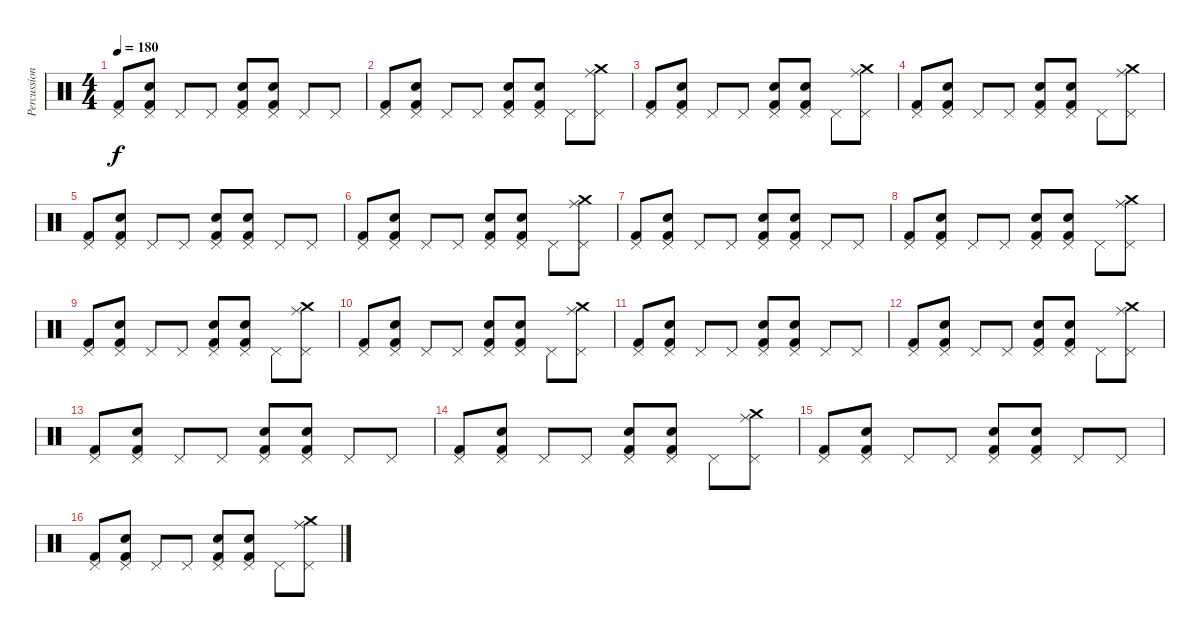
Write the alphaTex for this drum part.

\track ("Percussion" "Percussion") {instrument percussion}
\staff {score}
\articulation defaults
\ts (4 4)
\tempo 180
\clef neutral
\ks c
("Pedal Hi-Hat (hit)" "Kick (hit) 2").8{dy f} ("Pedal Hi-Hat (hit)" "Snare (hit) 2" "Kick (hit) 2").8 "Pedal Hi-Hat (hit)".8 "Pedal Hi-Hat (hit)".8 ("Pedal Hi-Hat (hit)" "Snare (hit) 2" "Kick (hit) 2").8 ("Pedal Hi-Hat (hit)" "Snare (hit) 2" "Kick (hit) 2").8 "Pedal Hi-Hat (hit)".8 "Pedal Hi-Hat (hit)".8 |
("Pedal Hi-Hat (hit)" "Kick (hit) 2").8 ("Pedal Hi-Hat (hit)" "Snare (hit) 2" "Kick (hit) 2").8 "Pedal Hi-Hat (hit)".8 "Pedal Hi-Hat (hit)".8 ("Pedal Hi-Hat (hit)" "Snare (hit) 2" "Kick (hit) 2").8 ("Pedal Hi-Hat (hit)" "Snare (hit) 2" "Kick (hit) 2").8 "Pedal Hi-Hat (hit)".8 ("Pedal Hi-Hat (hit)" "Ride (middle)" "Crash medium (hit)").8 |
("Pedal Hi-Hat (hit)" "Kick (hit) 2").8 ("Pedal Hi-Hat (hit)" "Snare (hit) 2" "Kick (hit) 2").8 "Pedal Hi-Hat (hit)".8 "Pedal Hi-Hat (hit)".8 ("Pedal Hi-Hat (hit)" "Snare (hit) 2" "Kick (hit) 2").8 ("Pedal Hi-Hat (hit)" "Snare (hit) 2" "Kick (hit) 2").8 "Pedal Hi-Hat (hit)".8 ("Pedal Hi-Hat (hit)" "Ride (middle)" "Crash medium (hit)").8 |
("Pedal Hi-Hat (hit)" "Kick (hit) 2").8 ("Pedal Hi-Hat (hit)" "Snare (hit) 2" "Kick (hit) 2").8 "Pedal Hi-Hat (hit)".8 "Pedal Hi-Hat (hit)".8 ("Pedal Hi-Hat (hit)" "Snare (hit) 2" "Kick (hit) 2").8 ("Pedal Hi-Hat (hit)" "Snare (hit) 2" "Kick (hit) 2").8 "Pedal Hi-Hat (hit)".8 ("Pedal Hi-Hat (hit)" "Ride (middle)" "Crash medium (hit)").8 |
("Pedal Hi-Hat (hit)" "Kick (hit) 2").8 ("Pedal Hi-Hat (hit)" "Snare (hit) 2" "Kick (hit) 2").8 "Pedal Hi-Hat (hit)".8 "Pedal Hi-Hat (hit)".8 ("Pedal Hi-Hat (hit)" "Snare (hit) 2" "Kick (hit) 2").8 ("Pedal Hi-Hat (hit)" "Snare (hit) 2" "Kick (hit) 2").8 "Pedal Hi-Hat (hit)".8 "Pedal Hi-Hat (hit)".8 |
("Pedal Hi-Hat (hit)" "Kick (hit) 2").8 ("Pedal Hi-Hat (hit)" "Snare (hit) 2" "Kick (hit) 2").8 "Pedal Hi-Hat (hit)".8 "Pedal Hi-Hat (hit)".8 ("Pedal Hi-Hat (hit)" "Snare (hit) 2" "Kick (hit) 2").8 ("Pedal Hi-Hat (hit)" "Snare (hit) 2" "Kick (hit) 2").8 "Pedal Hi-Hat (hit)".8 ("Pedal Hi-Hat (hit)" "Ride (middle)" "Crash medium (hit)").8 |
("Pedal Hi-Hat (hit)" "Kick (hit) 2").8 ("Pedal Hi-Hat (hit)" "Snare (hit) 2" "Kick (hit) 2").8 "Pedal Hi-Hat (hit)".8 "Pedal Hi-Hat (hit)".8 ("Pedal Hi-Hat (hit)" "Snare (hit) 2" "Kick (hit) 2").8 ("Pedal Hi-Hat (hit)" "Snare (hit) 2" "Kick (hit) 2").8 "Pedal Hi-Hat (hit)".8 "Pedal Hi-Hat (hit)".8 |
("Pedal Hi-Hat (hit)" "Kick (hit) 2").8 ("Pedal Hi-Hat (hit)" "Snare (hit) 2" "Kick (hit) 2").8 "Pedal Hi-Hat (hit)".8 "Pedal Hi-Hat (hit)".8 ("Pedal Hi-Hat (hit)" "Snare (hit) 2" "Kick (hit) 2").8 ("Pedal Hi-Hat (hit)" "Snare (hit) 2" "Kick (hit) 2").8 "Pedal Hi-Hat (hit)".8 ("Pedal Hi-Hat (hit)" "Ride (middle)" "Crash medium (hit)").8 |
("Pedal Hi-Hat (hit)" "Kick (hit) 2").8 ("Pedal Hi-Hat (hit)" "Snare (hit) 2" "Kick (hit) 2").8 "Pedal Hi-Hat (hit)".8 "Pedal Hi-Hat (hit)".8 ("Pedal Hi-Hat (hit)" "Snare (hit) 2" "Kick (hit) 2").8 ("Pedal Hi-Hat (hit)" "Snare (hit) 2" "Kick (hit) 2").8 "Pedal Hi-Hat (hit)".8 ("Pedal Hi-Hat (hit)" "Ride (middle)" "Crash medium (hit)").8 |
("Pedal Hi-Hat (hit)" "Kick (hit) 2").8 ("Pedal Hi-Hat (hit)" "Snare (hit) 2" "Kick (hit) 2").8 "Pedal Hi-Hat (hit)".8 "Pedal Hi-Hat (hit)".8 ("Pedal Hi-Hat (hit)" "Snare (hit) 2" "Kick (hit) 2").8 ("Pedal Hi-Hat (hit)" "Snare (hit) 2" "Kick (hit) 2").8 "Pedal Hi-Hat (hit)".8 ("Pedal Hi-Hat (hit)" "Ride (middle)" "Crash medium (hit)").8 |
("Pedal Hi-Hat (hit)" "Kick (hit) 2").8 ("Pedal Hi-Hat (hit)" "Snare (hit) 2" "Kick (hit) 2").8 "Pedal Hi-Hat (hit)".8 "Pedal Hi-Hat (hit)".8 ("Pedal Hi-Hat (hit)" "Snare (hit) 2" "Kick (hit) 2").8 ("Pedal Hi-Hat (hit)" "Snare (hit) 2" "Kick (hit) 2").8 "Pedal Hi-Hat (hit)".8 "Pedal Hi-Hat (hit)".8 |
("Pedal Hi-Hat (hit)" "Kick (hit) 2").8 ("Pedal Hi-Hat (hit)" "Snare (hit) 2" "Kick (hit) 2").8 "Pedal Hi-Hat (hit)".8 "Pedal Hi-Hat (hit)".8 ("Pedal Hi-Hat (hit)" "Snare (hit) 2" "Kick (hit) 2").8 ("Pedal Hi-Hat (hit)" "Snare (hit) 2" "Kick (hit) 2").8 "Pedal Hi-Hat (hit)".8 ("Pedal Hi-Hat (hit)" "Ride (middle)" "Crash medium (hit)").8 |
("Pedal Hi-Hat (hit)" "Kick (hit) 2").8 ("Pedal Hi-Hat (hit)" "Snare (hit) 2" "Kick (hit) 2").8 "Pedal Hi-Hat (hit)".8 "Pedal Hi-Hat (hit)".8 ("Pedal Hi-Hat (hit)" "Snare (hit) 2" "Kick (hit) 2").8 ("Pedal Hi-Hat (hit)" "Snare (hit) 2" "Kick (hit) 2").8 "Pedal Hi-Hat (hit)".8 "Pedal Hi-Hat (hit)".8 |
("Pedal Hi-Hat (hit)" "Kick (hit) 2").8 ("Pedal Hi-Hat (hit)" "Snare (hit) 2" "Kick (hit) 2").8 "Pedal Hi-Hat (hit)".8 "Pedal Hi-Hat (hit)".8 ("Pedal Hi-Hat (hit)" "Snare (hit) 2" "Kick (hit) 2").8 ("Pedal Hi-Hat (hit)" "Snare (hit) 2" "Kick (hit) 2").8 "Pedal Hi-Hat (hit)".8 ("Pedal Hi-Hat (hit)" "Ride (middle)" "Crash medium (hit)").8 |
("Pedal Hi-Hat (hit)" "Kick (hit) 2").8 ("Pedal Hi-Hat (hit)" "Snare (hit) 2" "Kick (hit) 2").8 "Pedal Hi-Hat (hit)".8 "Pedal Hi-Hat (hit)".8 ("Pedal Hi-Hat (hit)" "Snare (hit) 2" "Kick (hit) 2").8 ("Pedal Hi-Hat (hit)" "Snare (hit) 2" "Kick (hit) 2").8 "Pedal Hi-Hat (hit)".8 "Pedal Hi-Hat (hit)".8 |
("Pedal Hi-Hat (hit)" "Kick (hit) 2").8 ("Pedal Hi-Hat (hit)" "Snare (hit) 2" "Kick (hit) 2").8 "Pedal Hi-Hat (hit)".8 "Pedal Hi-Hat (hit)".8 ("Pedal Hi-Hat (hit)" "Snare (hit) 2" "Kick (hit) 2").8 ("Pedal Hi-Hat (hit)" "Snare (hit) 2" "Kick (hit) 2").8 "Pedal Hi-Hat (hit)".8 ("Pedal Hi-Hat (hit)" "Ride (middle)" "Crash medium (hit)").8
